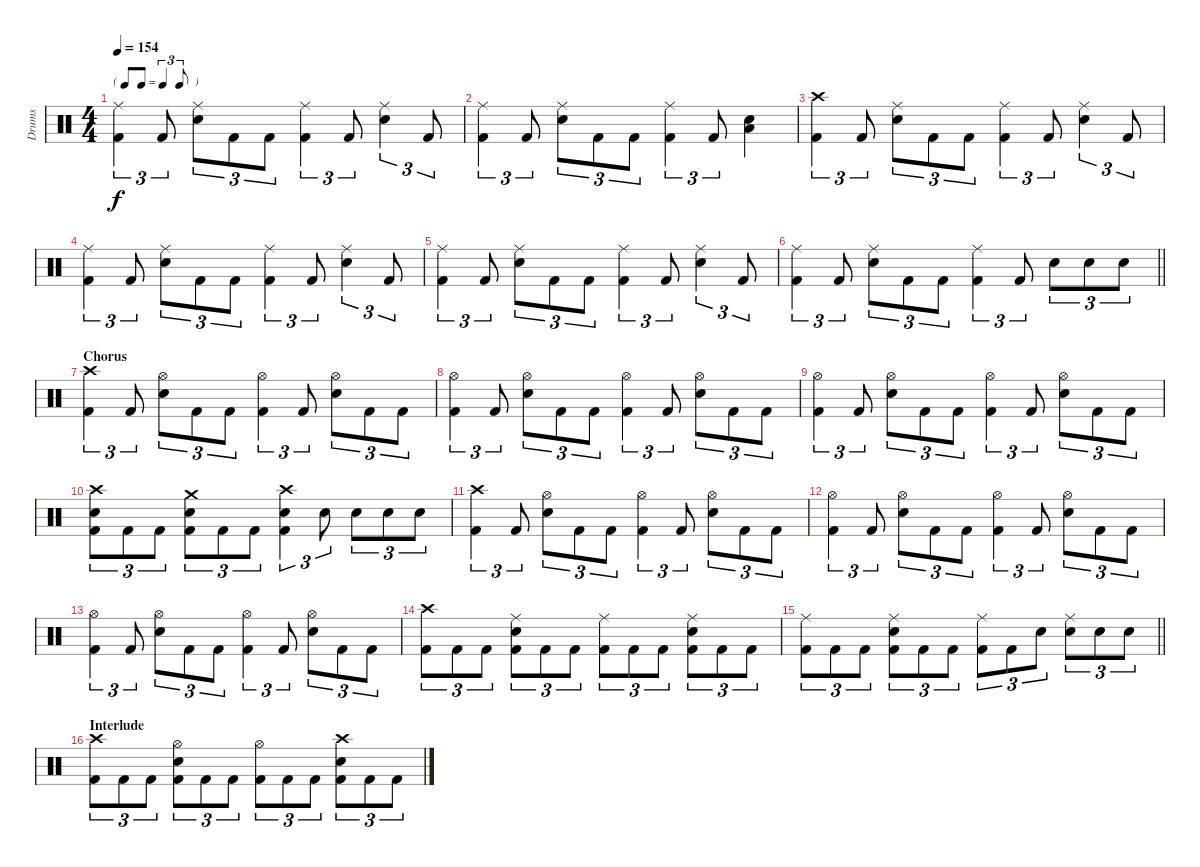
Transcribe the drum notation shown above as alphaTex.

\track ("Drums" "Drums") {instrument percussion}
\staff {score}
\articulation defaults
\ts (4 4)
\tf triplet8th
\tempo 154
\clef neutral
\ks c
("Ride (middle)" "Kick (hit) 2").4{tu (3 2) dy f} "Kick (hit) 2".8{tu (3 2)} ("Ride (middle)" "Snare (hit) 2").8{tu (3 2)} "Kick (hit) 2".8{tu (3 2)} "Kick (hit) 2".8{tu (3 2)} ("Ride (middle)" "Kick (hit) 2").4{tu (3 2)} "Kick (hit) 2".8{tu (3 2)} ("Ride (middle)" "Snare (hit) 2").4{tu (3 2)} "Kick (hit) 2".8{tu (3 2)} |
("Ride (middle)" "Kick (hit) 2").4{tu (3 2)} "Kick (hit) 2".8{tu (3 2)} ("Ride (middle)" "Snare (hit) 2").8{tu (3 2)} "Kick (hit) 2".8{tu (3 2)} "Kick (hit) 2".8{tu (3 2)} ("Ride (middle)" "Kick (hit) 2").4{tu (3 2)} "Kick (hit) 2".8{tu (3 2)} ("Snare (hit) 2" "Low Floor Tom (hit)").4 |
("Crash high (hit)" "Kick (hit) 2").4{tu (3 2)} "Kick (hit) 2".8{tu (3 2)} ("Ride (middle)" "Snare (hit) 2").8{tu (3 2)} "Kick (hit) 2".8{tu (3 2)} "Kick (hit) 2".8{tu (3 2)} ("Ride (middle)" "Kick (hit) 2").4{tu (3 2)} "Kick (hit) 2".8{tu (3 2)} ("Ride (middle)" "Snare (hit) 2").4{tu (3 2)} "Kick (hit) 2".8{tu (3 2)} |
("Ride (middle)" "Kick (hit) 2").4{tu (3 2)} "Kick (hit) 2".8{tu (3 2)} ("Ride (middle)" "Snare (hit) 2").8{tu (3 2)} "Kick (hit) 2".8{tu (3 2)} "Kick (hit) 2".8{tu (3 2)} ("Ride (middle)" "Kick (hit) 2").4{tu (3 2)} "Kick (hit) 2".8{tu (3 2)} ("Ride (middle)" "Snare (hit) 2").4{tu (3 2)} "Kick (hit) 2".8{tu (3 2)} |
("Ride (middle)" "Kick (hit) 2").4{tu (3 2)} "Kick (hit) 2".8{tu (3 2)} ("Ride (middle)" "Snare (hit) 2").8{tu (3 2)} "Kick (hit) 2".8{tu (3 2)} "Kick (hit) 2".8{tu (3 2)} ("Ride (middle)" "Kick (hit) 2").4{tu (3 2)} "Kick (hit) 2".8{tu (3 2)} ("Ride (middle)" "Snare (hit) 2").4{tu (3 2)} "Kick (hit) 2".8{tu (3 2)} |
\barLineRight lightlight
("Ride (middle)" "Kick (hit) 2").4{tu (3 2)} "Kick (hit) 2".8{tu (3 2)} ("Ride (middle)" "Snare (hit) 2").8{tu (3 2)} "Kick (hit) 2".8{tu (3 2)} "Kick (hit) 2".8{tu (3 2)} ("Ride (middle)" "Kick (hit) 2").4{tu (3 2)} "Kick (hit) 2".8{tu (3 2)} "Snare (hit) 2".8{tu (3 2)} "Snare (hit) 2".8{tu (3 2)} "Snare (hit) 2".8{tu (3 2)} |
\section ("" "Chorus")
("Crash high (hit)" "Kick (hit) 2").4{tu (3 2)} "Kick (hit) 2".8{tu (3 2)} ("Hi-Hat (open)" "Snare (hit) 2").8{tu (3 2)} "Kick (hit) 2".8{tu (3 2)} "Kick (hit) 2".8{tu (3 2)} ("Hi-Hat (open)" "Kick (hit) 2").4{tu (3 2)} "Kick (hit) 2".8{tu (3 2)} ("Hi-Hat (open)" "Snare (hit) 2").8{tu (3 2)} "Kick (hit) 2".8{tu (3 2)} "Kick (hit) 2".8{tu (3 2)} |
("Hi-Hat (open)" "Kick (hit) 2").4{tu (3 2)} "Kick (hit) 2".8{tu (3 2)} ("Hi-Hat (open)" "Snare (hit) 2").8{tu (3 2)} "Kick (hit) 2".8{tu (3 2)} "Kick (hit) 2".8{tu (3 2)} ("Hi-Hat (open)" "Kick (hit) 2").4{tu (3 2)} "Kick (hit) 2".8{tu (3 2)} ("Hi-Hat (open)" "Snare (hit) 2").8{tu (3 2)} "Kick (hit) 2".8{tu (3 2)} "Kick (hit) 2".8{tu (3 2)} |
("Hi-Hat (open)" "Kick (hit) 2").4{tu (3 2)} "Kick (hit) 2".8{tu (3 2)} ("Hi-Hat (open)" "Snare (hit) 2").8{tu (3 2)} "Kick (hit) 2".8{tu (3 2)} "Kick (hit) 2".8{tu (3 2)} ("Hi-Hat (open)" "Kick (hit) 2").4{tu (3 2)} "Kick (hit) 2".8{tu (3 2)} ("Hi-Hat (open)" "Snare (hit) 2").8{tu (3 2)} "Kick (hit) 2".8{tu (3 2)} "Kick (hit) 2".8{tu (3 2)} |
("Crash high (hit)" "Snare (hit) 2" "Kick (hit) 2").8{tu (3 2)} "Kick (hit) 2".8{tu (3 2)} "Kick (hit) 2".8{tu (3 2)} ("Crash medium (hit)" "Snare (hit) 2" "Kick (hit) 2").8{tu (3 2)} "Kick (hit) 2".8{tu (3 2)} "Kick (hit) 2".8{tu (3 2)} ("Crash high (hit)" "Snare (hit) 2" "Kick (hit) 2").4{tu (3 2)} "Snare (hit) 2".8{tu (3 2)} "Snare (hit) 2".8{tu (3 2)} "Snare (hit) 2".8{tu (3 2)} "Snare (hit) 2".8{tu (3 2)} |
("Crash high (hit)" "Kick (hit) 2").4{tu (3 2)} "Kick (hit) 2".8{tu (3 2)} ("Hi-Hat (open)" "Snare (hit) 2").8{tu (3 2)} "Kick (hit) 2".8{tu (3 2)} "Kick (hit) 2".8{tu (3 2)} ("Hi-Hat (open)" "Kick (hit) 2").4{tu (3 2)} "Kick (hit) 2".8{tu (3 2)} ("Hi-Hat (open)" "Snare (hit) 2").8{tu (3 2)} "Kick (hit) 2".8{tu (3 2)} "Kick (hit) 2".8{tu (3 2)} |
("Hi-Hat (open)" "Kick (hit) 2").4{tu (3 2)} "Kick (hit) 2".8{tu (3 2)} ("Hi-Hat (open)" "Snare (hit) 2").8{tu (3 2)} "Kick (hit) 2".8{tu (3 2)} "Kick (hit) 2".8{tu (3 2)} ("Hi-Hat (open)" "Kick (hit) 2").4{tu (3 2)} "Kick (hit) 2".8{tu (3 2)} ("Hi-Hat (open)" "Snare (hit) 2").8{tu (3 2)} "Kick (hit) 2".8{tu (3 2)} "Kick (hit) 2".8{tu (3 2)} |
("Hi-Hat (open)" "Kick (hit) 2").4{tu (3 2)} "Kick (hit) 2".8{tu (3 2)} ("Hi-Hat (open)" "Snare (hit) 2").8{tu (3 2)} "Kick (hit) 2".8{tu (3 2)} "Kick (hit) 2".8{tu (3 2)} ("Hi-Hat (open)" "Kick (hit) 2").4{tu (3 2)} "Kick (hit) 2".8{tu (3 2)} ("Hi-Hat (open)" "Snare (hit) 2").8{tu (3 2)} "Kick (hit) 2".8{tu (3 2)} "Kick (hit) 2".8{tu (3 2)} |
("Crash high (hit)" "Kick (hit) 2").8{tu (3 2)} "Kick (hit) 2".8{tu (3 2)} "Kick (hit) 2".8{tu (3 2)} ("Ride (middle)" "Snare (hit) 2" "Kick (hit) 2").8{tu (3 2)} "Kick (hit) 2".8{tu (3 2)} "Kick (hit) 2".8{tu (3 2)} ("Ride (middle)" "Kick (hit) 2").8{tu (3 2)} "Kick (hit) 2".8{tu (3 2)} "Kick (hit) 2".8{tu (3 2)} ("Ride (middle)" "Snare (hit) 2" "Kick (hit) 2").8{tu (3 2)} "Kick (hit) 2".8{tu (3 2)} "Kick (hit) 2".8{tu (3 2)} |
\barLineRight lightlight
("Ride (middle)" "Kick (hit) 2").8{tu (3 2)} "Kick (hit) 2".8{tu (3 2)} "Kick (hit) 2".8{tu (3 2)} ("Ride (middle)" "Snare (hit) 2" "Kick (hit) 2").8{tu (3 2)} "Kick (hit) 2".8{tu (3 2)} "Kick (hit) 2".8{tu (3 2)} ("Ride (middle)" "Kick (hit) 2").8{tu (3 2)} "Kick (hit) 2".8{tu (3 2)} "Snare (hit) 2".8{tu (3 2)} ("Ride (middle)" "Snare (hit) 2").8{tu (3 2)} "Snare (hit) 2".8{tu (3 2)} "Snare (hit) 2".8{tu (3 2)} |
\section ("" "Interlude")
("Crash high (hit)" "Kick (hit) 2").8{tu (3 2)} "Kick (hit) 2".8{tu (3 2)} "Kick (hit) 2".8{tu (3 2)} ("Hi-Hat (open)" "Snare (hit) 2" "Kick (hit) 2").8{tu (3 2)} "Kick (hit) 2".8{tu (3 2)} "Kick (hit) 2".8{tu (3 2)} ("Hi-Hat (open)" "Kick (hit) 2").8{tu (3 2)} "Kick (hit) 2".8{tu (3 2)} "Kick (hit) 2".8{tu (3 2)} ("Crash high (hit)" "Snare (hit) 2" "Kick (hit) 2").8{tu (3 2)} "Kick (hit) 2".8{tu (3 2)} "Kick (hit) 2".8{tu (3 2)}
